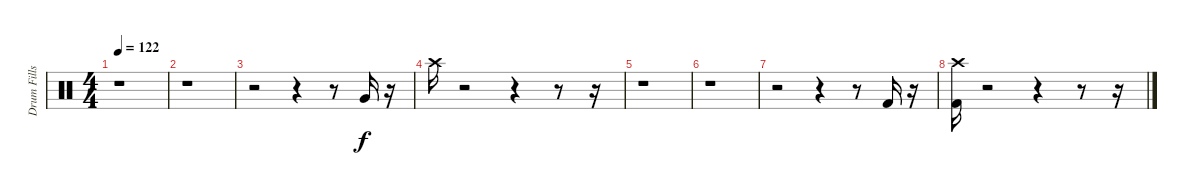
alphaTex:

\track ("Drum Fills etc" "Drum Fills") {instrument percussion}
\staff {score}
\articulation defaults
\ts (4 4)
\tempo 122
\clef neutral
\ks c
r.1{dy f} |
r.1 |
r.2 r.4 r.8 "Very Low Tom (hit)".16 r.16 |
"Crash high (hit)".16 r.2 r.4 r.8 r.16 |
r.1 |
r.1 |
r.2 r.4 r.8 "Kick (hit) 2".16 r.16 |
("Kick (hit) 2" "Crash high (hit)").16 r.2 r.4 r.8 r.16
